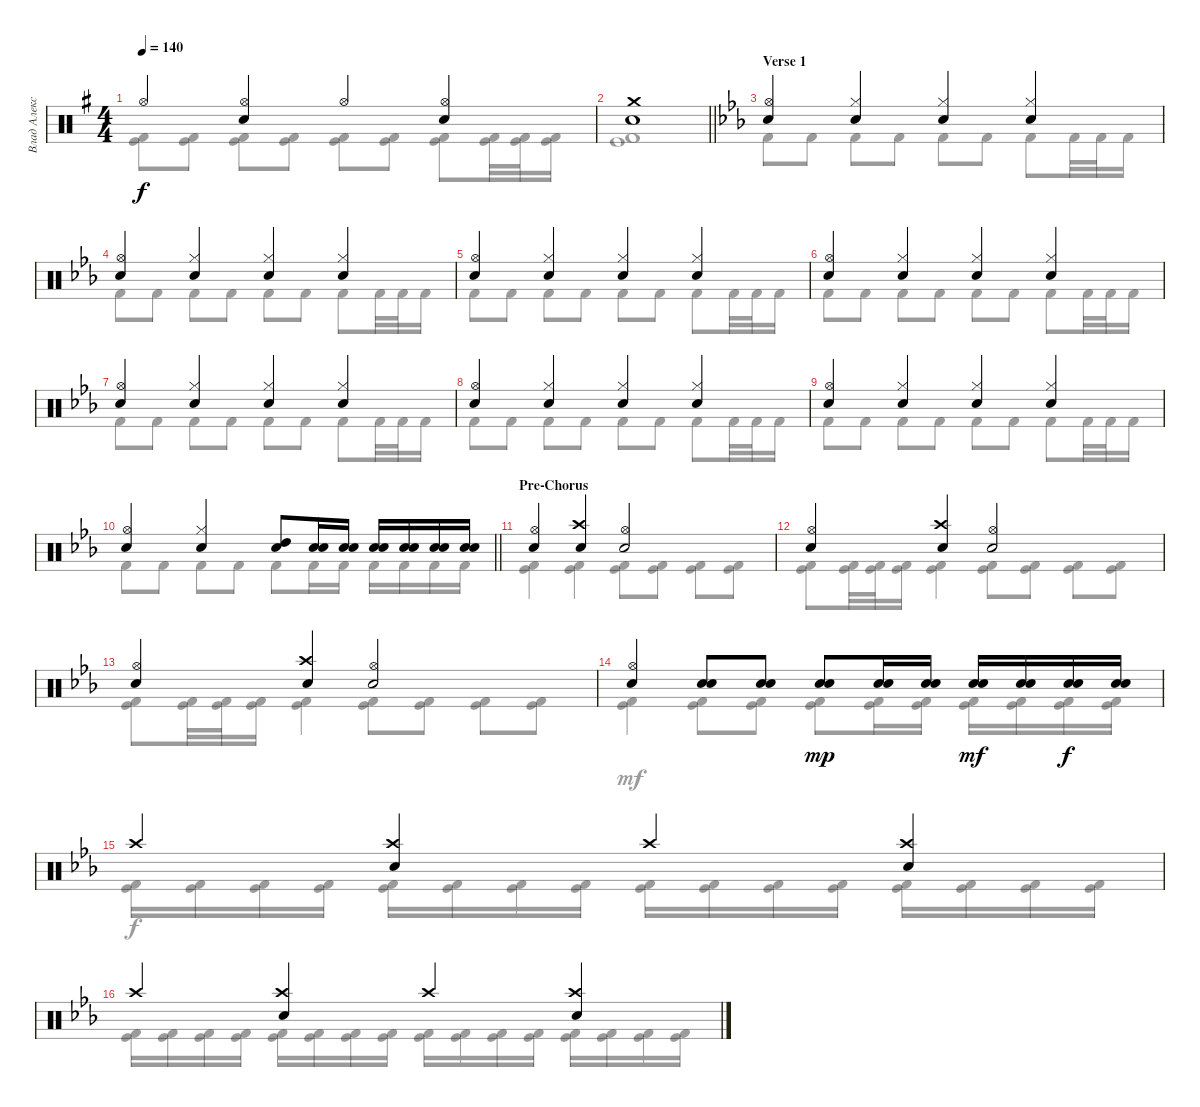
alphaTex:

\track ("Влад Алексеенко" "Влад Алекс") {instrument percussion}
\staff {score}
\articulation defaults
\voice
\ts (4 4)
\tempo 140
\clef neutral
\ks g "Hi-Hat (open)".4{dy f}
("Electric Snare (hit)" "Hi-Hat (open)").4 "Hi-Hat (open)".4 ("Electric Snare (hit)" "Hi-Hat (open)").4 |
\barLineRight lightlight
("Electric Snare (hit)" "Crash medium (hit)").1 |
\section ("" "Verse 1")
\ks eb
("Electric Snare (hit)" "Hi-Hat (open)").4 ("Electric Snare (hit)" "Hi-Hat (closed)").4 ("Electric Snare (hit)" "Hi-Hat (closed)").4 ("Electric Snare (hit)" "Hi-Hat (closed)").4 |
("Electric Snare (hit)" "Hi-Hat (open)").4 ("Electric Snare (hit)" "Hi-Hat (closed)").4 ("Electric Snare (hit)" "Hi-Hat (closed)").4 ("Electric Snare (hit)" "Hi-Hat (closed)").4 |
("Electric Snare (hit)" "Hi-Hat (open)").4 ("Electric Snare (hit)" "Hi-Hat (closed)").4 ("Electric Snare (hit)" "Hi-Hat (closed)").4 ("Electric Snare (hit)" "Hi-Hat (closed)").4 |
("Electric Snare (hit)" "Hi-Hat (open)").4 ("Electric Snare (hit)" "Hi-Hat (closed)").4 ("Electric Snare (hit)" "Hi-Hat (closed)").4 ("Electric Snare (hit)" "Hi-Hat (closed)").4 |
("Electric Snare (hit)" "Hi-Hat (open)").4 ("Electric Snare (hit)" "Hi-Hat (closed)").4 ("Electric Snare (hit)" "Hi-Hat (closed)").4 ("Electric Snare (hit)" "Hi-Hat (closed)").4 |
("Electric Snare (hit)" "Hi-Hat (open)").4 ("Electric Snare (hit)" "Hi-Hat (closed)").4 ("Electric Snare (hit)" "Hi-Hat (closed)").4 ("Electric Snare (hit)" "Hi-Hat (closed)").4 |
("Electric Snare (hit)" "Hi-Hat (open)").4 ("Electric Snare (hit)" "Hi-Hat (closed)").4 ("Electric Snare (hit)" "Hi-Hat (closed)").4 ("Electric Snare (hit)" "Hi-Hat (closed)").4 |
\barLineRight lightlight
("Electric Snare (hit)" "Hi-Hat (open)").4 ("Electric Snare (hit)" "Hi-Hat (closed)").4 ("Electric Snare (hit)" "High Tom (hit)").8 ("Electric Snare (hit)" "Electric Snare (hit)").16 ("Electric Snare (hit)" "Electric Snare (hit)").16 ("Electric Snare (hit)" "Electric Snare (hit)").16 ("Electric Snare (hit)" "Electric Snare (hit)").16 ("Electric Snare (hit)" "Electric Snare (hit)").16 ("Electric Snare (hit)" "Electric Snare (hit)").16 |
\section ("" "Pre-Chorus")
("Hi-Hat (open)" "Electric Snare (hit)").4 ("Crash high (hit)" "Electric Snare (hit)").4 ("Hi-Hat (open)" "Electric Snare (hit)").2 |
("Hi-Hat (open)" "Electric Snare (hit)").4 ("Crash high (hit)" "Electric Snare (hit)").4 ("Hi-Hat (open)" "Electric Snare (hit)").2 |
("Hi-Hat (open)" "Electric Snare (hit)").4 ("Crash high (hit)" "Electric Snare (hit)").4 ("Hi-Hat (open)" "Electric Snare (hit)").2 |
("Electric Snare (hit)" "Hi-Hat (open)").4 ("Electric Snare (hit)" "Electric Snare (hit)").8 ("Electric Snare (hit)" "Electric Snare (hit)").8 ("Electric Snare (hit)" "Electric Snare (hit)").8{dy mp} ("Electric Snare (hit)" "Electric Snare (hit)").16 ("Electric Snare (hit)" "Electric Snare (hit)").16 ("Electric Snare (hit)" "Electric Snare (hit)").16{dy mf} ("Electric Snare (hit)" "Electric Snare (hit)").16 ("Electric Snare (hit)" "Electric Snare (hit)").16{dy f} ("Electric Snare (hit)" "Electric Snare (hit)").16 |
"Crash high (hit)".4 ("Electric Snare (hit)" "Crash high (hit)").4 "Crash high (hit)".4 ("Electric Snare (hit)" "Crash high (hit)").4 |
"Crash high (hit)".4 ("Electric Snare (hit)" "Crash high (hit)").4 "Crash high (hit)".4 ("Electric Snare (hit)" "Crash high (hit)").4
\voice
\clef neutral
\ottava regular
\simile none
\ks g
("Kick (hit) 2" "Kick (hit)").8{dy f} ("Kick (hit) 2" "Kick (hit)").8 ("Kick (hit) 2" "Kick (hit)").8 ("Kick (hit) 2" "Kick (hit)").8 ("Kick (hit) 2" "Kick (hit)").8 ("Kick (hit) 2" "Kick (hit)").8 ("Kick (hit) 2" "Kick (hit)").8 ("Kick (hit) 2" "Kick (hit)").32 ("Kick (hit) 2" "Kick (hit)").32 ("Kick (hit) 2" "Kick (hit)").16 |
\barLineRight lightlight
("Kick (hit) 2" "Kick (hit)").1 |
\ks eb "Kick (hit) 2".8 "Kick (hit) 2".8 "Kick (hit) 2".8 "Kick (hit) 2".8 "Kick (hit) 2".8 "Kick (hit) 2".8 "Kick (hit) 2".8 "Kick (hit) 2".32 "Kick (hit) 2".32 "Kick (hit) 2".16
|
"Kick (hit) 2".8 "Kick (hit) 2".8 "Kick (hit) 2".8 "Kick (hit) 2".8 "Kick (hit) 2".8 "Kick (hit) 2".8 "Kick (hit) 2".8 "Kick (hit) 2".32 "Kick (hit) 2".32 "Kick (hit) 2".16 |
"Kick (hit) 2".8 "Kick (hit) 2".8 "Kick (hit) 2".8 "Kick (hit) 2".8 "Kick (hit) 2".8 "Kick (hit) 2".8 "Kick (hit) 2".8 "Kick (hit) 2".32 "Kick (hit) 2".32 "Kick (hit) 2".16 |
"Kick (hit) 2".8 "Kick (hit) 2".8 "Kick (hit) 2".8 "Kick (hit) 2".8 "Kick (hit) 2".8 "Kick (hit) 2".8 "Kick (hit) 2".8 "Kick (hit) 2".32 "Kick (hit) 2".32 "Kick (hit) 2".16 |
"Kick (hit) 2".8 "Kick (hit) 2".8 "Kick (hit) 2".8 "Kick (hit) 2".8 "Kick (hit) 2".8 "Kick (hit) 2".8 "Kick (hit) 2".8 "Kick (hit) 2".32 "Kick (hit) 2".32 "Kick (hit) 2".16 |
"Kick (hit) 2".8 "Kick (hit) 2".8 "Kick (hit) 2".8 "Kick (hit) 2".8 "Kick (hit) 2".8 "Kick (hit) 2".8 "Kick (hit) 2".8 "Kick (hit) 2".32 "Kick (hit) 2".32 "Kick (hit) 2".16 |
"Kick (hit) 2".8 "Kick (hit) 2".8 "Kick (hit) 2".8 "Kick (hit) 2".8 "Kick (hit) 2".8 "Kick (hit) 2".8 "Kick (hit) 2".8 "Kick (hit) 2".32 "Kick (hit) 2".32 "Kick (hit) 2".16 |
\barLineRight lightlight "Kick (hit) 2".8 "Kick (hit) 2".8 "Kick (hit) 2".8 "Kick (hit) 2".8 "Kick (hit) 2".8 "Kick (hit) 2".16 "Kick (hit) 2".16 "Kick (hit) 2".16 "Kick (hit) 2".16 "Kick (hit) 2".16 "Kick (hit) 2".16
|
("Kick (hit) 2" "Kick (hit)").4 ("Kick (hit) 2" "Kick (hit)").4 ("Kick (hit) 2" "Kick (hit)").8 ("Kick (hit) 2" "Kick (hit)").8 ("Kick (hit) 2" "Kick (hit)").8 ("Kick (hit) 2" "Kick (hit)").8 |
("Kick (hit) 2" "Kick (hit)").8 ("Kick (hit) 2" "Kick (hit)").32 ("Kick (hit) 2" "Kick (hit)").32 ("Kick (hit) 2" "Kick (hit)").16 ("Kick (hit) 2" "Kick (hit)").4 ("Kick (hit) 2" "Kick (hit)").8 ("Kick (hit) 2" "Kick (hit)").8 ("Kick (hit) 2" "Kick (hit)").8 ("Kick (hit) 2" "Kick (hit)").8 |
("Kick (hit) 2" "Kick (hit)").8 ("Kick (hit) 2" "Kick (hit)").32 ("Kick (hit) 2" "Kick (hit)").32 ("Kick (hit) 2" "Kick (hit)").16 ("Kick (hit) 2" "Kick (hit)").4 ("Kick (hit) 2" "Kick (hit)").8 ("Kick (hit) 2" "Kick (hit)").8 ("Kick (hit) 2" "Kick (hit)").8 ("Kick (hit) 2" "Kick (hit)").8 |
("Kick (hit) 2" "Kick (hit)").4{dy mf} ("Kick (hit) 2" "Kick (hit)").8 ("Kick (hit) 2" "Kick (hit)").8 ("Kick (hit) 2" "Kick (hit)").8 ("Kick (hit) 2" "Kick (hit)").16 ("Kick (hit) 2" "Kick (hit)").16 ("Kick (hit) 2" "Kick (hit)").16 ("Kick (hit) 2" "Kick (hit)").16 ("Kick (hit) 2" "Kick (hit)").16 ("Kick (hit) 2" "Kick (hit)").16 |
("Kick (hit) 2" "Kick (hit)").16{dy f} ("Kick (hit) 2" "Kick (hit)").16 ("Kick (hit) 2" "Kick (hit)").16 ("Kick (hit) 2" "Kick (hit)").16 ("Kick (hit) 2" "Kick (hit)").16 ("Kick (hit) 2" "Kick (hit)").16 ("Kick (hit) 2" "Kick (hit)").16 ("Kick (hit) 2" "Kick (hit)").16 ("Kick (hit) 2" "Kick (hit)").16 ("Kick (hit) 2" "Kick (hit)").16 ("Kick (hit) 2" "Kick (hit)").16 ("Kick (hit) 2" "Kick (hit)").16 ("Kick (hit) 2" "Kick (hit)").16 ("Kick (hit) 2" "Kick (hit)").16 ("Kick (hit) 2" "Kick (hit)").16 ("Kick (hit) 2" "Kick (hit)").16 |
("Kick (hit) 2" "Kick (hit)").16 ("Kick (hit) 2" "Kick (hit)").16 ("Kick (hit) 2" "Kick (hit)").16 ("Kick (hit) 2" "Kick (hit)").16 ("Kick (hit) 2" "Kick (hit)").16 ("Kick (hit) 2" "Kick (hit)").16 ("Kick (hit) 2" "Kick (hit)").16 ("Kick (hit) 2" "Kick (hit)").16 ("Kick (hit) 2" "Kick (hit)").16 ("Kick (hit) 2" "Kick (hit)").16 ("Kick (hit) 2" "Kick (hit)").16 ("Kick (hit) 2" "Kick (hit)").16 ("Kick (hit) 2" "Kick (hit)").16 ("Kick (hit) 2" "Kick (hit)").16 ("Kick (hit) 2" "Kick (hit)").16 ("Kick (hit) 2" "Kick (hit)").16
